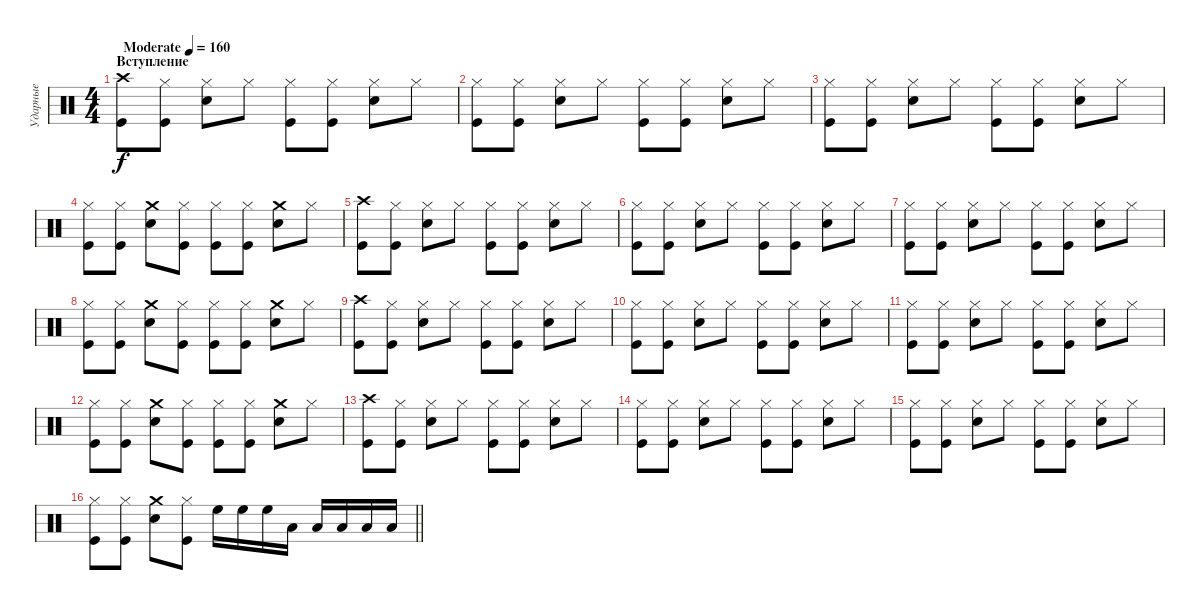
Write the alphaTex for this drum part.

\track ("Ударные" "Ударные") {instrument percussion}
\staff {score}
\articulation defaults
\ts (4 4)
\section ("" "Вступление")
\tempo (160 "Moderate")
\clef neutral
\ks c
("Crash high (hit)" "Kick (hit)").8{dy f} ("Hi-Hat (closed)" "Kick (hit)").8 ("Hi-Hat (closed)" "Snare (hit) 2").8 "Hi-Hat (closed)".8 ("Hi-Hat (closed)" "Kick (hit)").8 ("Hi-Hat (closed)" "Kick (hit)").8 ("Hi-Hat (closed)" "Snare (hit) 2").8 "Hi-Hat (closed)".8 |
("Hi-Hat (closed)" "Kick (hit)").8 ("Hi-Hat (closed)" "Kick (hit)").8 ("Hi-Hat (closed)" "Snare (hit) 2").8 "Hi-Hat (closed)".8 ("Hi-Hat (closed)" "Kick (hit)").8 ("Hi-Hat (closed)" "Kick (hit)").8 ("Hi-Hat (closed)" "Snare (hit) 2").8 "Hi-Hat (closed)".8 |
("Hi-Hat (closed)" "Kick (hit)").8 ("Hi-Hat (closed)" "Kick (hit)").8 ("Hi-Hat (closed)" "Snare (hit) 2").8 "Hi-Hat (closed)".8 ("Hi-Hat (closed)" "Kick (hit)").8 ("Hi-Hat (closed)" "Kick (hit)").8 ("Hi-Hat (closed)" "Snare (hit) 2").8 "Hi-Hat (closed)".8 |
("Hi-Hat (closed)" "Kick (hit)").8 ("Hi-Hat (closed)" "Kick (hit)").8 ("Crash medium (hit)" "Snare (hit) 2").8 ("Hi-Hat (closed)" "Kick (hit)").8 ("Hi-Hat (closed)" "Kick (hit)").8 ("Hi-Hat (closed)" "Kick (hit)").8 ("Crash medium (hit)" "Snare (hit) 2").8 "Hi-Hat (closed)".8 |
("Crash high (hit)" "Kick (hit)").8 ("Hi-Hat (closed)" "Kick (hit)").8 ("Hi-Hat (closed)" "Snare (hit) 2").8 "Hi-Hat (closed)".8 ("Hi-Hat (closed)" "Kick (hit)").8 ("Hi-Hat (closed)" "Kick (hit)").8 ("Hi-Hat (closed)" "Snare (hit) 2").8 "Hi-Hat (closed)".8 |
("Hi-Hat (closed)" "Kick (hit)").8 ("Hi-Hat (closed)" "Kick (hit)").8 ("Hi-Hat (closed)" "Snare (hit) 2").8 "Hi-Hat (closed)".8 ("Hi-Hat (closed)" "Kick (hit)").8 ("Hi-Hat (closed)" "Kick (hit)").8 ("Hi-Hat (closed)" "Snare (hit) 2").8 "Hi-Hat (closed)".8 |
("Hi-Hat (closed)" "Kick (hit)").8 ("Hi-Hat (closed)" "Kick (hit)").8 ("Hi-Hat (closed)" "Snare (hit) 2").8 "Hi-Hat (closed)".8 ("Hi-Hat (closed)" "Kick (hit)").8 ("Hi-Hat (closed)" "Kick (hit)").8 ("Hi-Hat (closed)" "Snare (hit) 2").8 "Hi-Hat (closed)".8 |
("Hi-Hat (closed)" "Kick (hit)").8 ("Hi-Hat (closed)" "Kick (hit)").8 ("Crash medium (hit)" "Snare (hit) 2").8 ("Hi-Hat (closed)" "Kick (hit)").8 ("Hi-Hat (closed)" "Kick (hit)").8 ("Hi-Hat (closed)" "Kick (hit)").8 ("Crash medium (hit)" "Snare (hit) 2").8 "Hi-Hat (closed)".8 |
("Crash high (hit)" "Kick (hit)").8 ("Hi-Hat (closed)" "Kick (hit)").8 ("Hi-Hat (closed)" "Snare (hit) 2").8 "Hi-Hat (closed)".8 ("Hi-Hat (closed)" "Kick (hit)").8 ("Hi-Hat (closed)" "Kick (hit)").8 ("Hi-Hat (closed)" "Snare (hit) 2").8 "Hi-Hat (closed)".8 |
("Hi-Hat (closed)" "Kick (hit)").8 ("Hi-Hat (closed)" "Kick (hit)").8 ("Hi-Hat (closed)" "Snare (hit) 2").8 "Hi-Hat (closed)".8 ("Hi-Hat (closed)" "Kick (hit)").8 ("Hi-Hat (closed)" "Kick (hit)").8 ("Hi-Hat (closed)" "Snare (hit) 2").8 "Hi-Hat (closed)".8 |
("Hi-Hat (closed)" "Kick (hit)").8 ("Hi-Hat (closed)" "Kick (hit)").8 ("Hi-Hat (closed)" "Snare (hit) 2").8 "Hi-Hat (closed)".8 ("Hi-Hat (closed)" "Kick (hit)").8 ("Hi-Hat (closed)" "Kick (hit)").8 ("Hi-Hat (closed)" "Snare (hit) 2").8 "Hi-Hat (closed)".8 |
("Hi-Hat (closed)" "Kick (hit)").8 ("Hi-Hat (closed)" "Kick (hit)").8 ("Crash medium (hit)" "Snare (hit) 2").8 ("Hi-Hat (closed)" "Kick (hit)").8 ("Hi-Hat (closed)" "Kick (hit)").8 ("Hi-Hat (closed)" "Kick (hit)").8 ("Crash medium (hit)" "Snare (hit) 2").8 "Hi-Hat (closed)".8 |
("Crash high (hit)" "Kick (hit)").8 ("Hi-Hat (closed)" "Kick (hit)").8 ("Hi-Hat (closed)" "Snare (hit) 2").8 "Hi-Hat (closed)".8 ("Hi-Hat (closed)" "Kick (hit)").8 ("Hi-Hat (closed)" "Kick (hit)").8 ("Hi-Hat (closed)" "Snare (hit) 2").8 "Hi-Hat (closed)".8 |
("Hi-Hat (closed)" "Kick (hit)").8 ("Hi-Hat (closed)" "Kick (hit)").8 ("Hi-Hat (closed)" "Snare (hit) 2").8 "Hi-Hat (closed)".8 ("Hi-Hat (closed)" "Kick (hit)").8 ("Hi-Hat (closed)" "Kick (hit)").8 ("Hi-Hat (closed)" "Snare (hit) 2").8 "Hi-Hat (closed)".8 |
("Hi-Hat (closed)" "Kick (hit)").8 ("Hi-Hat (closed)" "Kick (hit)").8 ("Hi-Hat (closed)" "Snare (hit) 2").8 "Hi-Hat (closed)".8 ("Hi-Hat (closed)" "Kick (hit)").8 ("Hi-Hat (closed)" "Kick (hit)").8 ("Hi-Hat (closed)" "Snare (hit) 2").8 "Hi-Hat (closed)".8 |
\barLineRight lightlight
("Hi-Hat (closed)" "Kick (hit)").8 ("Hi-Hat (closed)" "Kick (hit)").8 ("Crash medium (hit)" "Snare (hit) 2").8 ("Hi-Hat (closed)" "Kick (hit)").8 "High Floor Tom (hit)".16 "High Floor Tom (hit)".16 "High Floor Tom (hit)".16 "Low Tom (hit)".16 "Low Tom (hit)".16 "Low Tom (hit)".16 "Low Floor Tom (hit)".16 "Low Floor Tom (hit)".16
